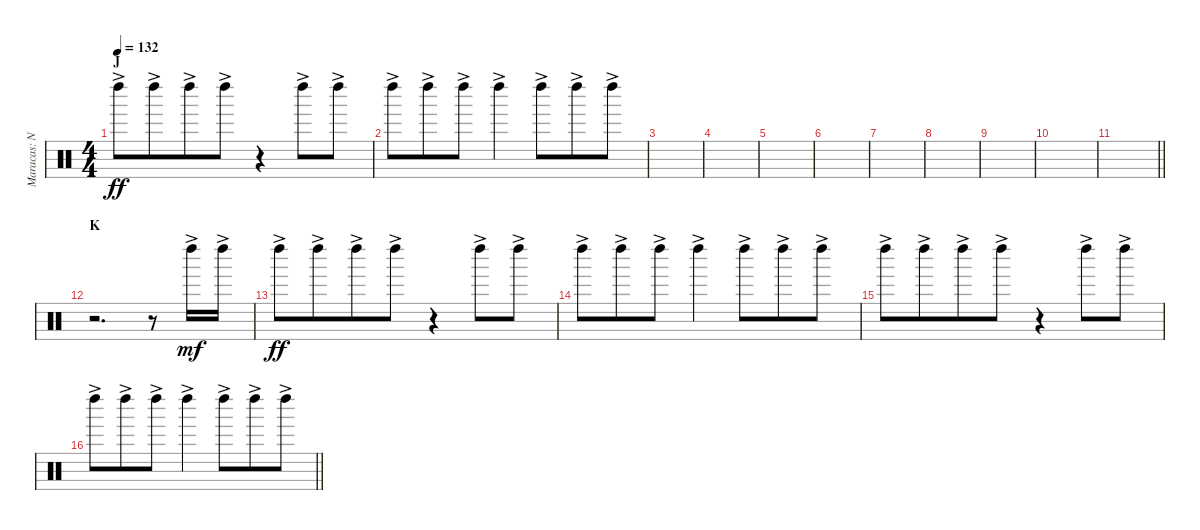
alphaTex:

\track ("Maracas: Nigel Ollson" "Maracas: N") {instrument percussion}
\staff {score}
\articulation defaults
\ts (4 4)
\section ("" "J")
\tempo 132
\clef neutral
\ks c "Left Maraca (hit)"{ac}.8{dy ff} "Left Maraca (hit)"{ac}.8{beam merge} "Left Maraca (hit)"{ac}.8 "Left Maraca (hit)"{ac}.8
r.4 "Left Maraca (hit)"{ac}.8 "Left Maraca (hit)"{ac}.8 |
"Left Maraca (hit)"{ac}.8 "Left Maraca (hit)"{ac}.8{beam merge} "Left Maraca (hit)"{ac}.8 "Left Maraca (hit)"{ac}.4 "Left Maraca (hit)"{ac}.8{beam merge} "Left Maraca (hit)"{ac}.8 "Left Maraca (hit)"{ac}.8 |
|
|
|
|
|
|
|
|
\barLineRight lightlight
|
\section ("" "K")
r.2{d} r.8 "Left Maraca (hit)"{ac}.16{dy mf} "Left Maraca (hit)"{ac}.16 |
"Left Maraca (hit)"{ac}.8{dy ff} "Left Maraca (hit)"{ac}.8{beam merge} "Left Maraca (hit)"{ac}.8 "Left Maraca (hit)"{ac}.8 r.4 "Left Maraca (hit)"{ac}.8 "Left Maraca (hit)"{ac}.8 |
"Left Maraca (hit)"{ac}.8 "Left Maraca (hit)"{ac}.8{beam merge} "Left Maraca (hit)"{ac}.8 "Left Maraca (hit)"{ac}.4 "Left Maraca (hit)"{ac}.8{beam merge} "Left Maraca (hit)"{ac}.8 "Left Maraca (hit)"{ac}.8 |
"Left Maraca (hit)"{ac}.8 "Left Maraca (hit)"{ac}.8{beam merge} "Left Maraca (hit)"{ac}.8 "Left Maraca (hit)"{ac}.8 r.4 "Left Maraca (hit)"{ac}.8 "Left Maraca (hit)"{ac}.8 |
\barLineRight lightlight "Left Maraca (hit)"{ac}.8 "Left Maraca (hit)"{ac}.8{beam merge} "Left Maraca (hit)"{ac}.8 "Left Maraca (hit)"{ac}.4 "Left Maraca (hit)"{ac}.8{beam merge} "Left Maraca (hit)"{ac}.8 "Left Maraca (hit)"{ac}.8
